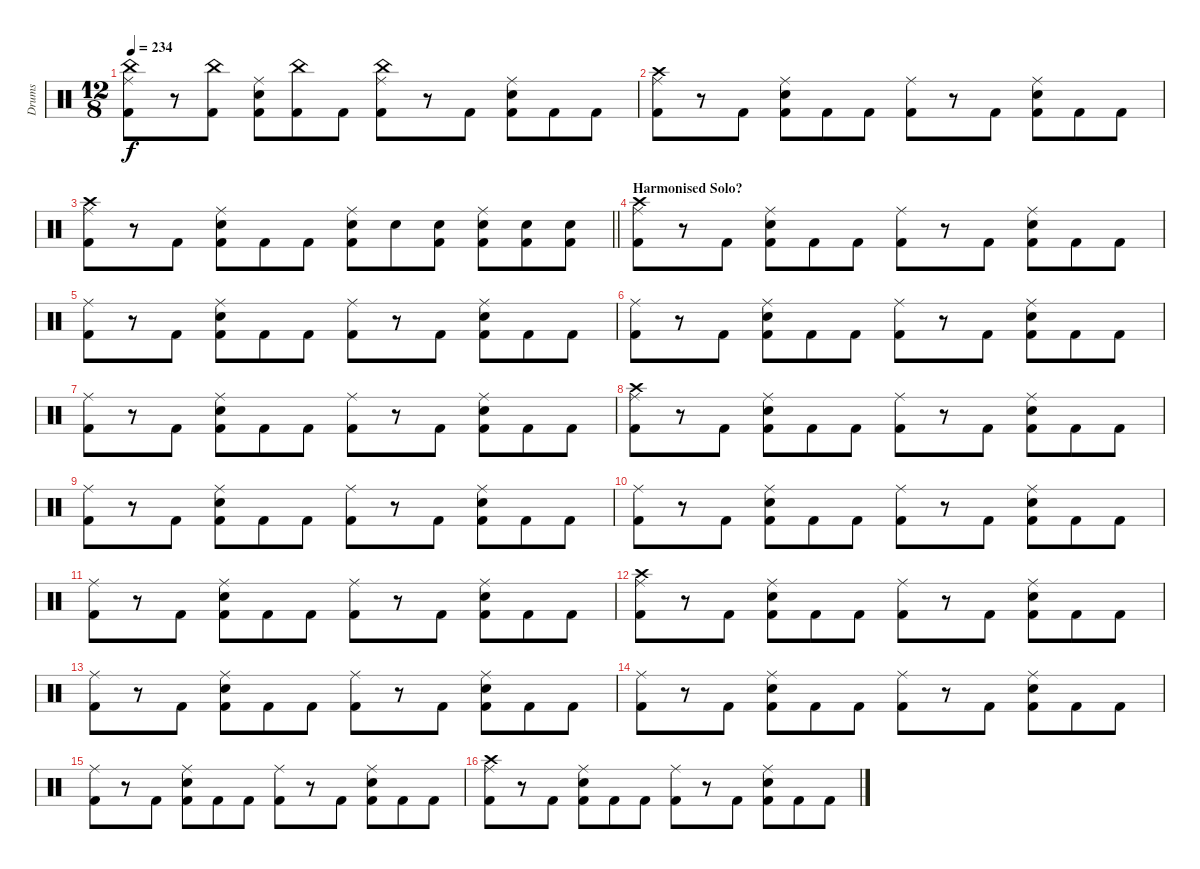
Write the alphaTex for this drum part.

\track ("Drums" "Drums") {instrument percussion}
\staff {score}
\articulation defaults
\ts (12 8)
\tempo 234
\clef neutral
\ks c
("China (hit)" "Ride (middle)" "Kick (hit) 2").8{dy f} r.8 ("China (hit)" "Kick (hit) 2").8 ("Ride (middle)" "Snare (hit) 2" "Kick (hit) 2").8 ("China (hit)" "Kick (hit) 2").8 "Kick (hit) 2".8 ("China (hit)" "Ride (middle)" "Kick (hit) 2").8 r.8 "Kick (hit) 2".8 ("Ride (middle)" "Snare (hit) 2" "Kick (hit) 2").8 "Kick (hit) 2".8 "Kick (hit) 2".8 |
("Crash high (hit)" "Ride (middle)" "Kick (hit) 2").8 r.8 "Kick (hit) 2".8 ("Ride (middle)" "Snare (hit) 2" "Kick (hit) 2").8 "Kick (hit) 2".8 "Kick (hit) 2".8 ("Ride (middle)" "Kick (hit) 2").8 r.8 "Kick (hit) 2".8 ("Ride (middle)" "Snare (hit) 2" "Kick (hit) 2").8 "Kick (hit) 2".8 "Kick (hit) 2".8 |
\barLineRight lightlight
("Crash high (hit)" "Ride (middle)" "Kick (hit) 2").8 r.8 "Kick (hit) 2".8 ("Ride (middle)" "Snare (hit) 2" "Kick (hit) 2").8 "Kick (hit) 2".8 "Kick (hit) 2".8 ("Ride (middle)" "Snare (hit) 2" "Kick (hit) 2").8 "Snare (hit) 2".8 ("Snare (hit) 2" "Kick (hit) 2").8 ("Ride (middle)" "Snare (hit) 2" "Kick (hit) 2").8 ("Snare (hit) 2" "Kick (hit) 2").8 ("Snare (hit) 2" "Kick (hit) 2").8 |
\section ("" "Harmonised Solo?")
("Crash high (hit)" "Ride (middle)" "Kick (hit) 2").8 r.8 "Kick (hit) 2".8 ("Ride (middle)" "Snare (hit) 2" "Kick (hit) 2").8 "Kick (hit) 2".8 "Kick (hit) 2".8 ("Ride (middle)" "Kick (hit) 2").8 r.8 "Kick (hit) 2".8 ("Ride (middle)" "Snare (hit) 2" "Kick (hit) 2").8 "Kick (hit) 2".8 "Kick (hit) 2".8 |
("Ride (middle)" "Kick (hit) 2").8 r.8 "Kick (hit) 2".8 ("Ride (middle)" "Snare (hit) 2" "Kick (hit) 2").8 "Kick (hit) 2".8 "Kick (hit) 2".8 ("Ride (middle)" "Kick (hit) 2").8 r.8 "Kick (hit) 2".8 ("Ride (middle)" "Snare (hit) 2" "Kick (hit) 2").8 "Kick (hit) 2".8 "Kick (hit) 2".8 |
("Ride (middle)" "Kick (hit) 2").8 r.8 "Kick (hit) 2".8 ("Ride (middle)" "Snare (hit) 2" "Kick (hit) 2").8 "Kick (hit) 2".8 "Kick (hit) 2".8 ("Ride (middle)" "Kick (hit) 2").8 r.8 "Kick (hit) 2".8 ("Ride (middle)" "Snare (hit) 2" "Kick (hit) 2").8 "Kick (hit) 2".8 "Kick (hit) 2".8 |
("Ride (middle)" "Kick (hit) 2").8 r.8 "Kick (hit) 2".8 ("Ride (middle)" "Snare (hit) 2" "Kick (hit) 2").8 "Kick (hit) 2".8 "Kick (hit) 2".8 ("Ride (middle)" "Kick (hit) 2").8 r.8 "Kick (hit) 2".8 ("Ride (middle)" "Snare (hit) 2" "Kick (hit) 2").8 "Kick (hit) 2".8 "Kick (hit) 2".8 |
("Crash high (hit)" "Ride (middle)" "Kick (hit) 2").8 r.8 "Kick (hit) 2".8 ("Ride (middle)" "Snare (hit) 2" "Kick (hit) 2").8 "Kick (hit) 2".8 "Kick (hit) 2".8 ("Ride (middle)" "Kick (hit) 2").8 r.8 "Kick (hit) 2".8 ("Ride (middle)" "Snare (hit) 2" "Kick (hit) 2").8 "Kick (hit) 2".8 "Kick (hit) 2".8 |
("Ride (middle)" "Kick (hit) 2").8 r.8 "Kick (hit) 2".8 ("Ride (middle)" "Snare (hit) 2" "Kick (hit) 2").8 "Kick (hit) 2".8 "Kick (hit) 2".8 ("Ride (middle)" "Kick (hit) 2").8 r.8 "Kick (hit) 2".8 ("Ride (middle)" "Snare (hit) 2" "Kick (hit) 2").8 "Kick (hit) 2".8 "Kick (hit) 2".8 |
("Ride (middle)" "Kick (hit) 2").8 r.8 "Kick (hit) 2".8 ("Ride (middle)" "Snare (hit) 2" "Kick (hit) 2").8 "Kick (hit) 2".8 "Kick (hit) 2".8 ("Ride (middle)" "Kick (hit) 2").8 r.8 "Kick (hit) 2".8 ("Ride (middle)" "Snare (hit) 2" "Kick (hit) 2").8 "Kick (hit) 2".8 "Kick (hit) 2".8 |
("Ride (middle)" "Kick (hit) 2").8 r.8 "Kick (hit) 2".8 ("Ride (middle)" "Snare (hit) 2" "Kick (hit) 2").8 "Kick (hit) 2".8 "Kick (hit) 2".8 ("Ride (middle)" "Kick (hit) 2").8 r.8 "Kick (hit) 2".8 ("Ride (middle)" "Snare (hit) 2" "Kick (hit) 2").8 "Kick (hit) 2".8 "Kick (hit) 2".8 |
("Crash high (hit)" "Ride (middle)" "Kick (hit) 2").8 r.8 "Kick (hit) 2".8 ("Ride (middle)" "Snare (hit) 2" "Kick (hit) 2").8 "Kick (hit) 2".8 "Kick (hit) 2".8 ("Ride (middle)" "Kick (hit) 2").8 r.8 "Kick (hit) 2".8 ("Ride (middle)" "Snare (hit) 2" "Kick (hit) 2").8 "Kick (hit) 2".8 "Kick (hit) 2".8 |
("Ride (middle)" "Kick (hit) 2").8 r.8 "Kick (hit) 2".8 ("Ride (middle)" "Snare (hit) 2" "Kick (hit) 2").8 "Kick (hit) 2".8 "Kick (hit) 2".8 ("Ride (middle)" "Kick (hit) 2").8 r.8 "Kick (hit) 2".8 ("Ride (middle)" "Snare (hit) 2" "Kick (hit) 2").8 "Kick (hit) 2".8 "Kick (hit) 2".8 |
("Ride (middle)" "Kick (hit) 2").8 r.8 "Kick (hit) 2".8 ("Ride (middle)" "Snare (hit) 2" "Kick (hit) 2").8 "Kick (hit) 2".8 "Kick (hit) 2".8 ("Ride (middle)" "Kick (hit) 2").8 r.8 "Kick (hit) 2".8 ("Ride (middle)" "Snare (hit) 2" "Kick (hit) 2").8 "Kick (hit) 2".8 "Kick (hit) 2".8 |
("Ride (middle)" "Kick (hit) 2").8 r.8 "Kick (hit) 2".8 ("Ride (middle)" "Snare (hit) 2" "Kick (hit) 2").8 "Kick (hit) 2".8 "Kick (hit) 2".8 ("Ride (middle)" "Kick (hit) 2").8 r.8 "Kick (hit) 2".8 ("Ride (middle)" "Snare (hit) 2" "Kick (hit) 2").8 "Kick (hit) 2".8 "Kick (hit) 2".8 |
("Crash high (hit)" "Ride (middle)" "Kick (hit) 2").8 r.8 "Kick (hit) 2".8 ("Ride (middle)" "Snare (hit) 2" "Kick (hit) 2").8 "Kick (hit) 2".8 "Kick (hit) 2".8 ("Ride (middle)" "Kick (hit) 2").8 r.8 "Kick (hit) 2".8 ("Ride (middle)" "Snare (hit) 2" "Kick (hit) 2").8 "Kick (hit) 2".8 "Kick (hit) 2".8
